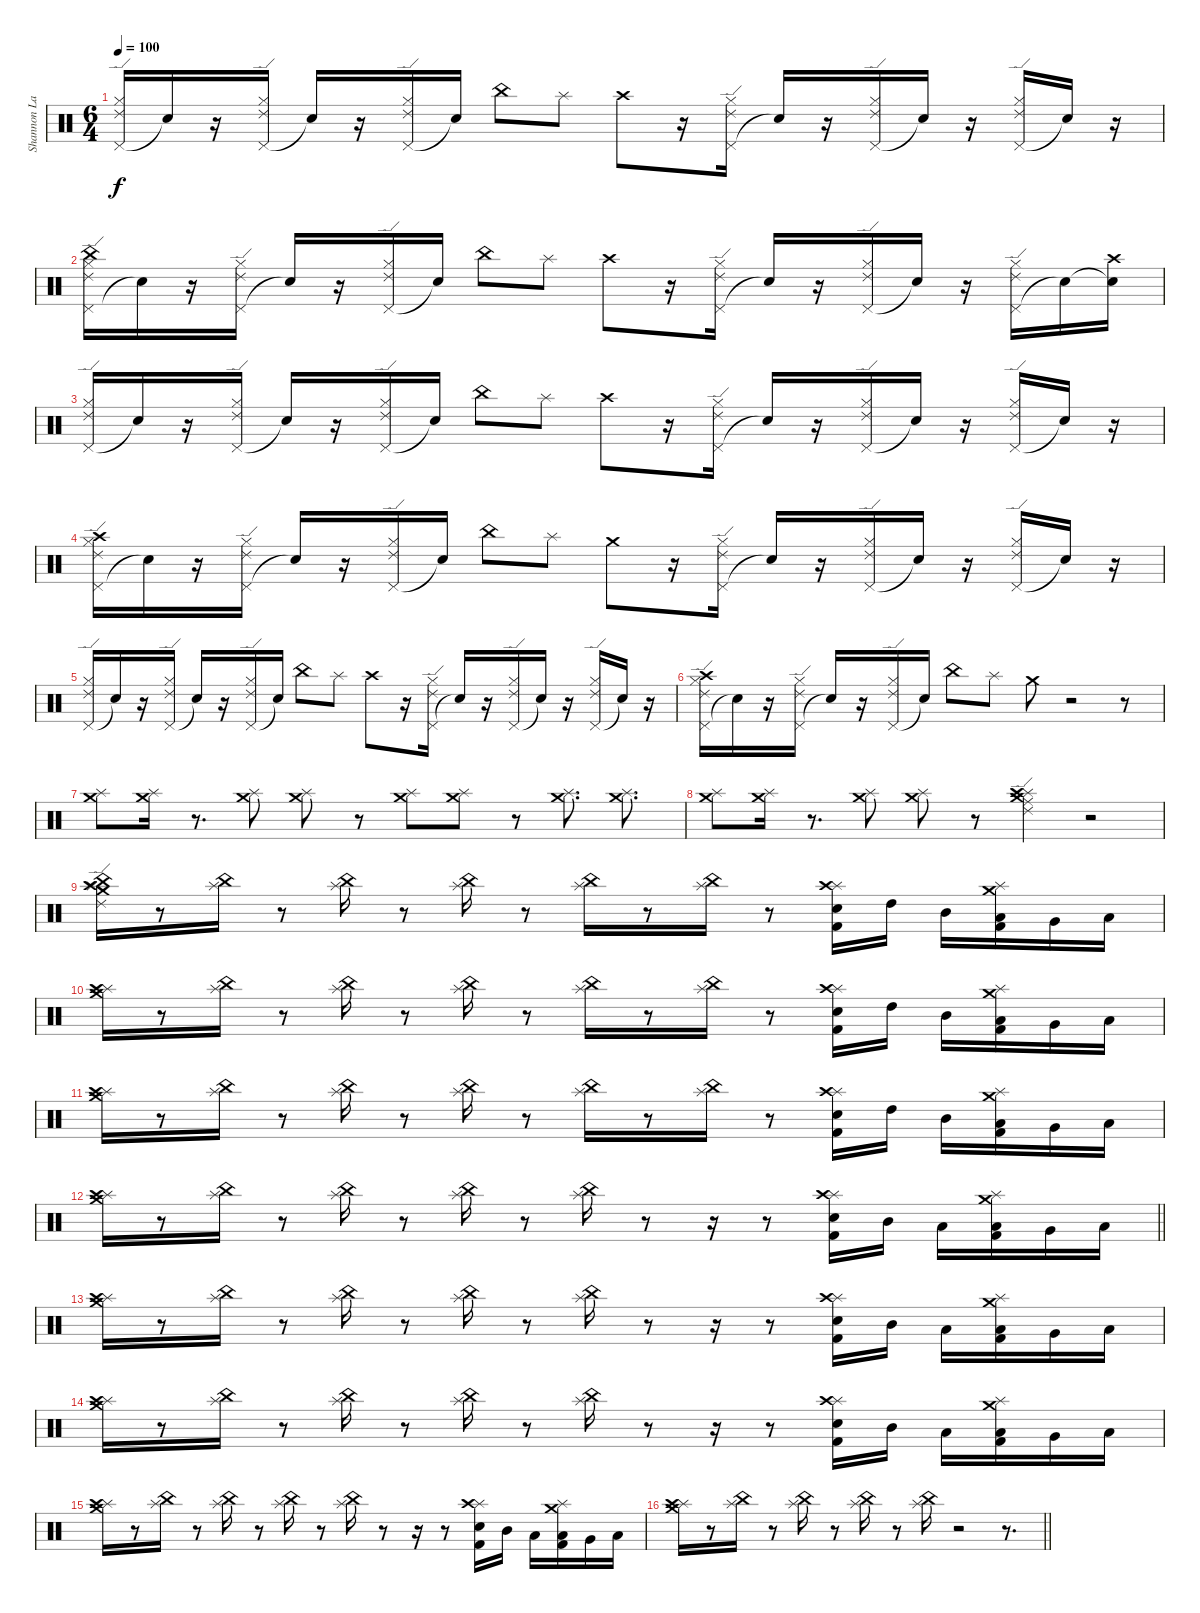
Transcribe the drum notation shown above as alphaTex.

\track ("Shannon Larkin [1]" "Shannon La") {instrument percussion}
\staff {score}
\articulation defaults
\ts (6 4)
\tempo 100
\clef neutral
\ks c
("Pedal Hi-Hat (hit)" "Hi-Hat (closed)" "Ride (edge) 2").16{dy f} "Snare (hit)"{t}.16 r.16 ("Pedal Hi-Hat (hit)" "Hi-Hat (closed)" "Ride (edge) 2").16 "Snare (hit)"{t}.16 r.16 ("Pedal Hi-Hat (hit)" "Hi-Hat (closed)" "Ride (edge) 2").16 "Snare (hit)"{t}.16 "China (hit)".8 "Splash (hit)".8 "Crash high (hit)".8 r.16 ("Pedal Hi-Hat (hit)" "Hi-Hat (closed)" "Ride (edge) 2").16 "Snare (hit)"{t}.16 r.16 ("Pedal Hi-Hat (hit)" "Hi-Hat (closed)" "Ride (edge) 2").16 "Snare (hit)"{t}.16 r.16 ("Pedal Hi-Hat (hit)" "Hi-Hat (closed)" "Ride (edge) 2").16 "Snare (hit)"{t}.16 r.16 |
("Pedal Hi-Hat (hit)" "Hi-Hat (closed)" "China (hit)" "Ride (edge) 2").16 "Snare (hit)"{t}.16 r.16 ("Pedal Hi-Hat (hit)" "Hi-Hat (closed)" "Ride (edge) 2").16 "Snare (hit)"{t}.16 r.16 ("Pedal Hi-Hat (hit)" "Hi-Hat (closed)" "Ride (edge) 2").16 "Snare (hit)"{t}.16 "China (hit)".8 "Splash (hit)".8 "Crash high (hit)".8 r.16 ("Pedal Hi-Hat (hit)" "Hi-Hat (closed)" "Ride (edge) 2").16 "Snare (hit)"{t}.16 r.16 ("Pedal Hi-Hat (hit)" "Hi-Hat (closed)" "Ride (edge) 2").16 "Snare (hit)"{t}.16 r.16 ("Pedal Hi-Hat (hit)" "Hi-Hat (closed)" "Ride (edge) 2").16 "Snare (hit)"{t}.16 ("Snare (hit)"{t} "Crash high (hit)").16 |
("Pedal Hi-Hat (hit)" "Hi-Hat (closed)" "Ride (edge) 2").16 "Snare (hit)"{t}.16 r.16 ("Pedal Hi-Hat (hit)" "Hi-Hat (closed)" "Ride (edge) 2").16 "Snare (hit)"{t}.16 r.16 ("Pedal Hi-Hat (hit)" "Hi-Hat (closed)" "Ride (edge) 2").16 "Snare (hit)"{t}.16 "China (hit)".8 "Splash (hit)".8 "Crash high (hit)".8 r.16 ("Pedal Hi-Hat (hit)" "Hi-Hat (closed)" "Ride (edge) 2").16 "Snare (hit)"{t}.16 r.16 ("Pedal Hi-Hat (hit)" "Hi-Hat (closed)" "Ride (edge) 2").16 "Snare (hit)"{t}.16 r.16 ("Pedal Hi-Hat (hit)" "Hi-Hat (closed)" "Ride (edge) 2").16 "Snare (hit)"{t}.16 r.16 |
("Pedal Hi-Hat (hit)" "Hi-Hat (closed)" "Crash high (hit)" "Ride (edge) 2").16 "Snare (hit)"{t}.16 r.16 ("Pedal Hi-Hat (hit)" "Hi-Hat (closed)" "Ride (edge) 2").16 "Snare (hit)"{t}.16 r.16 ("Pedal Hi-Hat (hit)" "Hi-Hat (closed)" "Ride (edge) 2").16 "Snare (hit)"{t}.16 "China (hit)".8 "Splash (hit)".8 "Crash medium (hit)".8 r.16 ("Pedal Hi-Hat (hit)" "Hi-Hat (closed)" "Ride (edge) 2").16 "Snare (hit)"{t}.16 r.16 ("Pedal Hi-Hat (hit)" "Hi-Hat (closed)" "Ride (edge) 2").16 "Snare (hit)"{t}.16 r.16 ("Pedal Hi-Hat (hit)" "Hi-Hat (closed)" "Ride (edge) 2").16 "Snare (hit)"{t}.16 r.16 |
("Pedal Hi-Hat (hit)" "Hi-Hat (closed)" "Ride (edge) 2").16 "Snare (hit)"{t}.16 r.16 ("Pedal Hi-Hat (hit)" "Hi-Hat (closed)" "Ride (edge) 2").16 "Snare (hit)"{t}.16 r.16 ("Pedal Hi-Hat (hit)" "Hi-Hat (closed)" "Ride (edge) 2").16 "Snare (hit)"{t}.16 "China (hit)".8 "Splash (hit)".8 "Crash high (hit)".8 r.16 ("Pedal Hi-Hat (hit)" "Hi-Hat (closed)" "Ride (edge) 2").16 "Snare (hit)"{t}.16 r.16 ("Pedal Hi-Hat (hit)" "Hi-Hat (closed)" "Ride (edge) 2").16 "Snare (hit)"{t}.16 r.16 ("Pedal Hi-Hat (hit)" "Hi-Hat (closed)" "Ride (edge) 2").16 "Snare (hit)"{t}.16 r.16 |
("Pedal Hi-Hat (hit)" "Hi-Hat (closed)" "Crash high (hit)" "Ride (edge) 2").16 "Snare (hit)"{t}.16 r.16 ("Pedal Hi-Hat (hit)" "Hi-Hat (closed)" "Ride (edge) 2").16 "Snare (hit)"{t}.16 r.16 ("Pedal Hi-Hat (hit)" "Hi-Hat (closed)" "Ride (edge) 2").16 "Snare (hit)"{t}.16 "China (hit)".8 "Splash (hit)".8 "Crash medium (hit)".8 r.2 r.8 |
("Splash (hit)" "Crash medium (hit)").8 ("Splash (hit)" "Crash medium (hit)").16 r.8{d} ("Splash (hit)" "Crash medium (hit)").8 ("Splash (hit)" "Crash medium (hit)").8 r.8 ("Splash (hit)" "Crash medium (hit)").8 ("Splash (hit)" "Crash medium (hit)").8 r.8 ("Splash (hit)" "Crash medium (hit)").8{d} ("Splash (hit)" "Crash medium (hit)").8{d} |
("Splash (hit)" "Crash medium (hit)").8 ("Splash (hit)" "Crash medium (hit)").16 r.8{d} ("Splash (hit)" "Crash medium (hit)").8 ("Splash (hit)" "Crash medium (hit)").8 r.8 ("Splash (hit)" "Ride (middle)" "Crash high (hit)" "Ride (edge) 2" "Crash medium (hit)").4 r.2 |
("Splash (hit)" "China (hit)" "Crash high (hit)" "Ride (edge) 2" "Crash medium (hit)").16 r.8 ("Splash (hit)" "China (hit)").16 r.8 ("Splash (hit)" "China (hit)").16 r.8 ("Splash (hit)" "China (hit)").16 r.8 ("Splash (hit)" "China (hit)").16 r.8 ("Splash (hit)" "China (hit)").16 r.8 ("Splash (hit)" "Crash high (hit)" "Electric Snare (hit)" "Kick (hit) 2").16 "High Tom (hit)".16 "Mid Tom (hit)".16 ("Splash (hit)" "Crash medium (hit)" "Low Tom (hit)" "Kick (hit) 2").16 "Very Low Tom (hit)".16 "Low Floor Tom (hit)".16 |
("Splash (hit)" "Crash high (hit)" "Crash medium (hit)").16 r.8 ("Splash (hit)" "China (hit)").16 r.8 ("Splash (hit)" "China (hit)").16 r.8 ("Splash (hit)" "China (hit)").16 r.8 ("Splash (hit)" "China (hit)").16 r.8 ("Splash (hit)" "China (hit)").16 r.8 ("Splash (hit)" "Crash high (hit)" "Electric Snare (hit)" "Kick (hit) 2").16 "High Tom (hit)".16 "Mid Tom (hit)".16 ("Splash (hit)" "Crash medium (hit)" "Low Tom (hit)" "Kick (hit) 2").16 "Very Low Tom (hit)".16 "Low Floor Tom (hit)".16 |
("Splash (hit)" "Crash high (hit)" "Crash medium (hit)").16 r.8 ("Splash (hit)" "China (hit)").16 r.8 ("Splash (hit)" "China (hit)").16 r.8 ("Splash (hit)" "China (hit)").16 r.8 ("Splash (hit)" "China (hit)").16 r.8 ("Splash (hit)" "China (hit)").16 r.8 ("Splash (hit)" "Crash high (hit)" "Electric Snare (hit)" "Kick (hit) 2").16 "High Tom (hit)".16 "Mid Tom (hit)".16 ("Splash (hit)" "Crash medium (hit)" "Low Tom (hit)" "Kick (hit) 2").16 "Very Low Tom (hit)".16 "Low Floor Tom (hit)".16 |
\barLineRight lightlight
("Splash (hit)" "Crash high (hit)" "Crash medium (hit)").16 r.8 ("Splash (hit)" "China (hit)").16 r.8 ("Splash (hit)" "China (hit)").16 r.8 ("Splash (hit)" "China (hit)").16 r.8 ("Splash (hit)" "China (hit)").16 r.8 r.16 r.8 ("Splash (hit)" "Crash high (hit)" "Electric Snare (hit)" "Kick (hit) 2").16 "Mid Tom (hit)".16 "Low Tom (hit)".16 ("Splash (hit)" "Crash medium (hit)" "Low Tom (hit)" "Kick (hit) 2").16 "Very Low Tom (hit)".16 "Low Floor Tom (hit)".16 |
("Splash (hit)" "Crash high (hit)" "Crash medium (hit)").16 r.8 ("Splash (hit)" "China (hit)").16 r.8 ("Splash (hit)" "China (hit)").16 r.8 ("Splash (hit)" "China (hit)").16 r.8 ("Splash (hit)" "China (hit)").16 r.8 r.16 r.8 ("Splash (hit)" "Crash high (hit)" "Electric Snare (hit)" "Kick (hit) 2").16 "Mid Tom (hit)".16 "Low Tom (hit)".16 ("Splash (hit)" "Crash medium (hit)" "Low Tom (hit)" "Kick (hit) 2").16 "Very Low Tom (hit)".16 "Low Floor Tom (hit)".16 |
("Splash (hit)" "Crash high (hit)" "Crash medium (hit)").16 r.8 ("Splash (hit)" "China (hit)").16 r.8 ("Splash (hit)" "China (hit)").16 r.8 ("Splash (hit)" "China (hit)").16 r.8 ("Splash (hit)" "China (hit)").16 r.8 r.16 r.8 ("Splash (hit)" "Crash high (hit)" "Electric Snare (hit)" "Kick (hit) 2").16 "Mid Tom (hit)".16 "Low Tom (hit)".16 ("Splash (hit)" "Crash medium (hit)" "Low Tom (hit)" "Kick (hit) 2").16 "Very Low Tom (hit)".16 "Low Floor Tom (hit)".16 |
("Splash (hit)" "Crash high (hit)" "Crash medium (hit)").16 r.8 ("Splash (hit)" "China (hit)").16 r.8 ("Splash (hit)" "China (hit)").16 r.8 ("Splash (hit)" "China (hit)").16 r.8 ("Splash (hit)" "China (hit)").16 r.8 r.16 r.8 ("Splash (hit)" "Crash high (hit)" "Electric Snare (hit)" "Kick (hit) 2").16 "Mid Tom (hit)".16 "Low Tom (hit)".16 ("Splash (hit)" "Crash medium (hit)" "Low Tom (hit)" "Kick (hit) 2").16 "Very Low Tom (hit)".16 "Low Floor Tom (hit)".16 |
\barLineRight lightlight
("Splash (hit)" "Crash high (hit)" "Crash medium (hit)").16 r.8 ("Splash (hit)" "China (hit)").16 r.8 ("Splash (hit)" "China (hit)").16 r.8 ("Splash (hit)" "China (hit)").16 r.8 ("Splash (hit)" "China (hit)").16 r.2 r.8{d}
